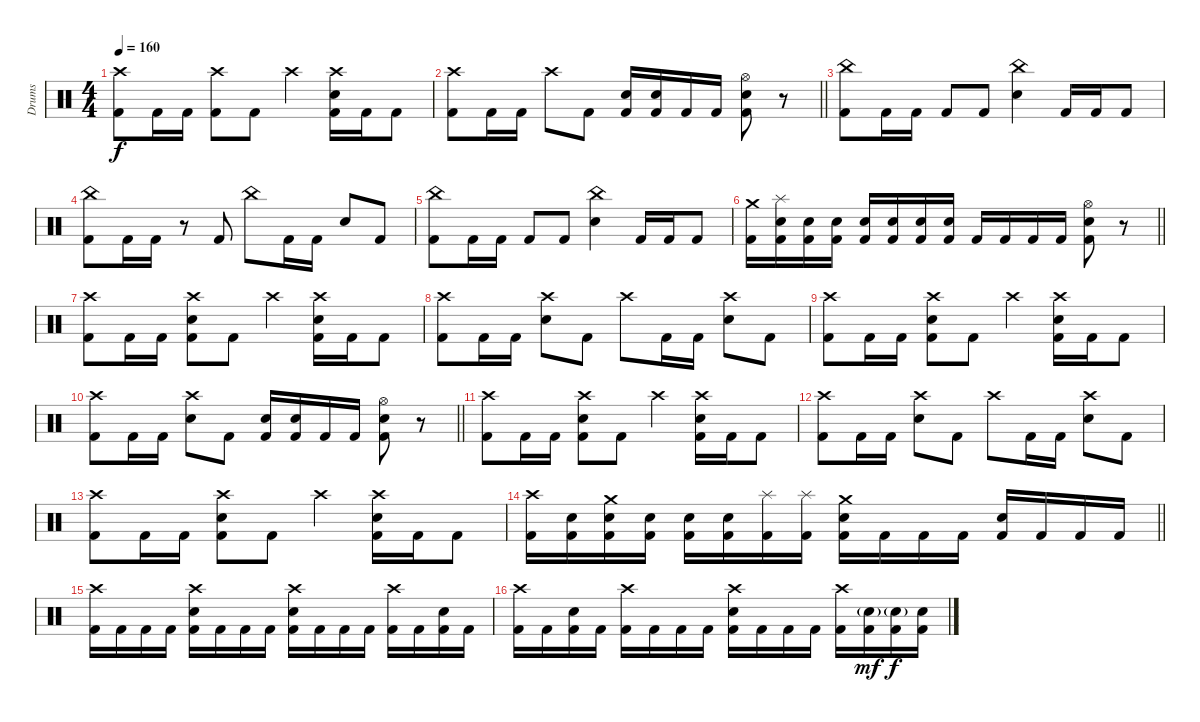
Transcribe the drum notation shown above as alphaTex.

\track ("Drums" "Drums") {instrument percussion}
\staff {score}
\articulation defaults
\ts (4 4)
\tempo 160
\clef neutral
\ks c
("Crash high (hit)" "Kick (hit) 2").8{dy f} "Kick (hit) 2".16 "Kick (hit) 2".16 ("Crash high (hit)" "Kick (hit) 2").8 "Kick (hit) 2".8 "Crash high (hit)".4 ("Crash high (hit)" "Electric Snare (hit)" "Kick (hit) 2").16 "Kick (hit) 2".16 "Kick (hit) 2".8 |
\barLineRight lightlight
("Crash high (hit)" "Kick (hit) 2").8 "Kick (hit) 2".16 "Kick (hit) 2".16 "Crash high (hit)".8 "Kick (hit) 2".8 ("Electric Snare (hit)" "Kick (hit) 2").16 ("Electric Snare (hit)" "Kick (hit) 2").16 "Kick (hit) 2".16 "Kick (hit) 2".16 ("Hi-Hat (open)" "Electric Snare (hit)" "Kick (hit) 2").8 r.8 |
("China (hit)" "Kick (hit) 2").8 "Kick (hit) 2".16 "Kick (hit) 2".16 "Kick (hit) 2".8 "Kick (hit) 2".8 ("China (hit)" "Electric Snare (hit)").4 "Kick (hit) 2".16 "Kick (hit) 2".16 "Kick (hit) 2".8 |
("China (hit)" "Kick (hit) 2").8 "Kick (hit) 2".16 "Kick (hit) 2".16 r.8 "Kick (hit) 2".8 "China (hit)".8 "Kick (hit) 2".16 "Kick (hit) 2".16 "Electric Snare (hit)".8 "Kick (hit) 2".8 |
("China (hit)" "Kick (hit) 2").8 "Kick (hit) 2".16 "Kick (hit) 2".16 "Kick (hit) 2".8 "Kick (hit) 2".8 ("China (hit)" "Electric Snare (hit)").4 "Kick (hit) 2".16 "Kick (hit) 2".16 "Kick (hit) 2".8 |
\barLineRight lightlight
("Crash medium (hit)" "Kick (hit) 2").16 ("Splash (hit)" "Electric Snare (hit)" "Kick (hit) 2").16 ("Electric Snare (hit)" "Kick (hit) 2").16 ("Electric Snare (hit)" "Kick (hit) 2").16 ("Electric Snare (hit)" "Kick (hit) 2").16 ("Electric Snare (hit)" "Kick (hit) 2").16 ("Electric Snare (hit)" "Kick (hit) 2").16 ("Electric Snare (hit)" "Kick (hit) 2").16 "Kick (hit) 2".16 "Kick (hit) 2".16 "Kick (hit) 2".16 "Kick (hit) 2".16 ("Hi-Hat (open)" "Electric Snare (hit)" "Kick (hit) 2").8 r.8 |
("Crash high (hit)" "Kick (hit) 2").8 "Kick (hit) 2".16 "Kick (hit) 2".16 ("Crash high (hit)" "Electric Snare (hit)" "Kick (hit) 2").8 "Kick (hit) 2".8 "Crash high (hit)".4 ("Crash high (hit)" "Electric Snare (hit)" "Kick (hit) 2").16 "Kick (hit) 2".16 "Kick (hit) 2".8 |
("Crash high (hit)" "Kick (hit) 2").8 "Kick (hit) 2".16 "Kick (hit) 2".16 ("Crash high (hit)" "Electric Snare (hit)").8 "Kick (hit) 2".8 "Crash high (hit)".8 "Kick (hit) 2".16 "Kick (hit) 2".16 ("Crash high (hit)" "Electric Snare (hit)").8 "Kick (hit) 2".8 |
("Crash high (hit)" "Kick (hit) 2").8 "Kick (hit) 2".16 "Kick (hit) 2".16 ("Crash high (hit)" "Electric Snare (hit)" "Kick (hit) 2").8 "Kick (hit) 2".8 "Crash high (hit)".4 ("Crash high (hit)" "Electric Snare (hit)" "Kick (hit) 2").16 "Kick (hit) 2".16 "Kick (hit) 2".8 |
\barLineRight lightlight
("Crash high (hit)" "Kick (hit) 2").8 "Kick (hit) 2".16 "Kick (hit) 2".16 ("Crash high (hit)" "Electric Snare (hit)").8 "Kick (hit) 2".8 ("Electric Snare (hit)" "Kick (hit) 2").16 ("Electric Snare (hit)" "Kick (hit) 2").16 "Kick (hit) 2".16 "Kick (hit) 2".16 ("Hi-Hat (open)" "Electric Snare (hit)" "Kick (hit) 2").8 r.8 |
("Crash high (hit)" "Kick (hit) 2").8 "Kick (hit) 2".16 "Kick (hit) 2".16 ("Crash high (hit)" "Electric Snare (hit)" "Kick (hit) 2").8 "Kick (hit) 2".8 "Crash high (hit)".4 ("Crash high (hit)" "Electric Snare (hit)" "Kick (hit) 2").16 "Kick (hit) 2".16 "Kick (hit) 2".8 |
("Crash high (hit)" "Kick (hit) 2").8 "Kick (hit) 2".16 "Kick (hit) 2".16 ("Crash high (hit)" "Electric Snare (hit)").8 "Kick (hit) 2".8 "Crash high (hit)".8 "Kick (hit) 2".16 "Kick (hit) 2".16 ("Crash high (hit)" "Electric Snare (hit)").8 "Kick (hit) 2".8 |
("Crash high (hit)" "Kick (hit) 2").8 "Kick (hit) 2".16 "Kick (hit) 2".16 ("Crash high (hit)" "Electric Snare (hit)" "Kick (hit) 2").8 "Kick (hit) 2".8 "Crash high (hit)".4 ("Crash high (hit)" "Electric Snare (hit)" "Kick (hit) 2").16 "Kick (hit) 2".16 "Kick (hit) 2".8 |
\barLineRight lightlight
("Crash high (hit)" "Kick (hit) 2").16 ("Electric Snare (hit)" "Kick (hit) 2").16 ("Crash medium (hit)" "Electric Snare (hit)" "Kick (hit) 2").16 ("Electric Snare (hit)" "Kick (hit) 2").16 ("Electric Snare (hit)" "Kick (hit) 2").16 ("Electric Snare (hit)" "Kick (hit) 2").16 ("Splash (hit)" "Kick (hit) 2").16 ("Splash (hit)" "Kick (hit) 2").16 ("Crash medium (hit)" "Electric Snare (hit)" "Kick (hit) 2").16 "Kick (hit) 2".16 "Kick (hit) 2".16 "Kick (hit) 2".16 ("Electric Snare (hit)" "Kick (hit) 2").16 "Kick (hit) 2".16 "Kick (hit) 2".16 "Kick (hit) 2".16 |
("Crash high (hit)" "Kick (hit) 2").16 "Kick (hit) 2".16 "Kick (hit) 2".16 "Kick (hit) 2".16 ("Crash high (hit)" "Electric Snare (hit)" "Kick (hit) 2").16 "Kick (hit) 2".16 "Kick (hit) 2".16 "Kick (hit) 2".16 ("Crash high (hit)" "Electric Snare (hit)" "Kick (hit) 2").16 "Kick (hit) 2".16 "Kick (hit) 2".16 "Kick (hit) 2".16 ("Crash high (hit)" "Kick (hit) 2").16 "Kick (hit) 2".16 ("Electric Snare (hit)" "Kick (hit) 2").16 "Kick (hit) 2".16 |
("Crash high (hit)" "Kick (hit) 2").16 "Kick (hit) 2".16 ("Electric Snare (hit)" "Kick (hit) 2").16 "Kick (hit) 2".16 ("Crash high (hit)" "Kick (hit) 2").16 "Kick (hit) 2".16 "Kick (hit) 2".16 "Kick (hit) 2".16 ("Crash high (hit)" "Electric Snare (hit)" "Kick (hit) 2").16 "Kick (hit) 2".16 "Kick (hit) 2".16 "Kick (hit) 2".16 ("Crash high (hit)" "Kick (hit) 2").16 ("Electric Snare (hit)"{g} "Kick (hit) 2").16{dy mf} ("Electric Snare (hit)"{g} "Kick (hit) 2").16{dy f} ("Electric Snare (hit)" "Kick (hit) 2").16
